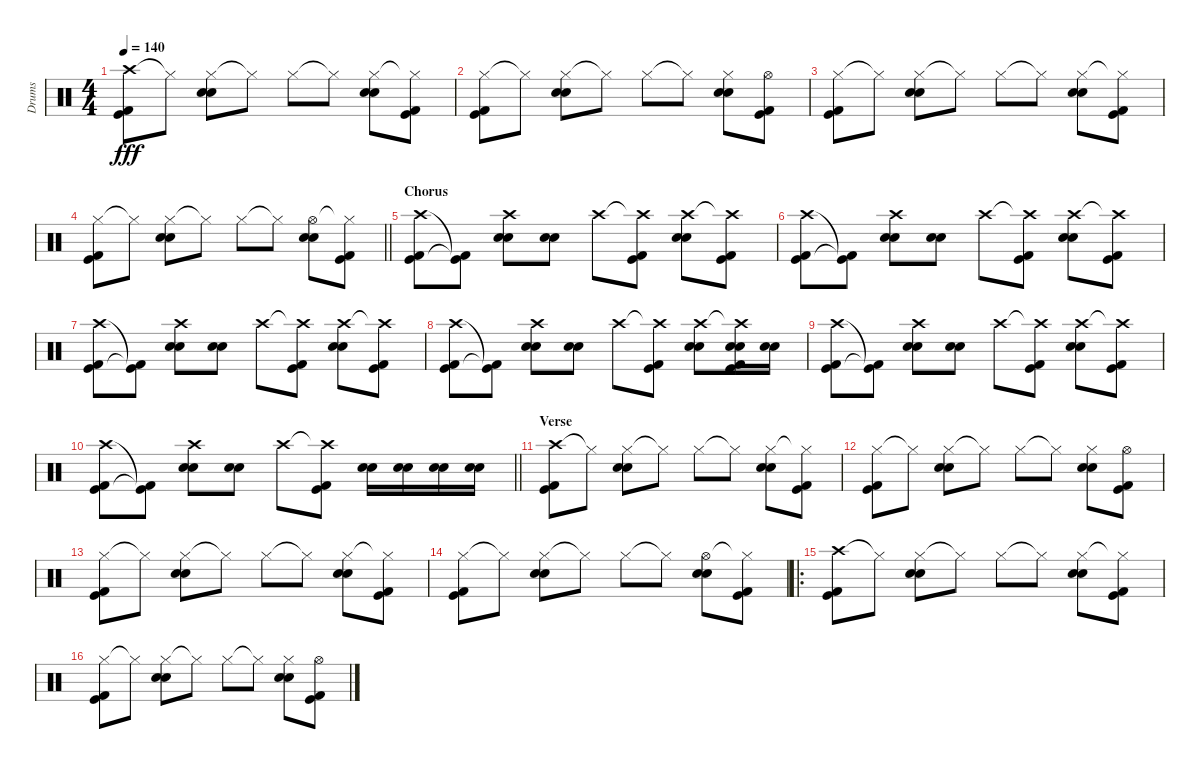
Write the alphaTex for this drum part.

\track ("Drums" "Drums") {instrument percussion}
\staff {score}
\articulation defaults
\ts (4 4)
\tempo 140
\clef neutral
\ks c
("Crash high (hit)" "Kick (hit)" "Kick (hit) 2").8{dy fff} "Hi-Hat (closed)"{t}.8 ("Hi-Hat (closed)" "Electric Snare (hit)" "Electric Snare (hit)").8 "Hi-Hat (closed)"{t}.8 "Hi-Hat (closed)".8 "Hi-Hat (closed)"{t}.8 ("Hi-Hat (closed)" "Electric Snare (hit)" "Electric Snare (hit)").8 ("Hi-Hat (closed)"{t} "Kick (hit)" "Kick (hit) 2").8 |
("Hi-Hat (closed)" "Kick (hit)" "Kick (hit) 2").8 "Hi-Hat (closed)"{t}.8 ("Hi-Hat (closed)" "Electric Snare (hit)" "Electric Snare (hit)").8 "Hi-Hat (closed)"{t}.8 "Hi-Hat (closed)".8 "Hi-Hat (closed)"{t}.8 ("Hi-Hat (closed)" "Electric Snare (hit)" "Electric Snare (hit)").8 ("Hi-Hat (open)" "Kick (hit)" "Kick (hit) 2").8 |
("Hi-Hat (closed)" "Kick (hit)" "Kick (hit) 2").8 "Hi-Hat (closed)"{t}.8 ("Hi-Hat (closed)" "Electric Snare (hit)" "Electric Snare (hit)").8 "Hi-Hat (closed)"{t}.8 "Hi-Hat (closed)".8 "Hi-Hat (closed)"{t}.8 ("Hi-Hat (closed)" "Electric Snare (hit)" "Electric Snare (hit)").8 ("Hi-Hat (closed)"{t} "Kick (hit)" "Kick (hit) 2").8 |
\barLineRight lightlight
("Hi-Hat (closed)" "Kick (hit)" "Kick (hit) 2").8 "Hi-Hat (closed)"{t}.8 ("Hi-Hat (closed)" "Electric Snare (hit)" "Electric Snare (hit)").8 "Hi-Hat (closed)"{t}.8 "Hi-Hat (closed)".8 "Hi-Hat (closed)"{t}.8 ("Hi-Hat (open)" "Electric Snare (hit)" "Electric Snare (hit)").8 ("Hi-Hat (closed)"{t} "Kick (hit)" "Kick (hit) 2").8 |
\section ("" "Chorus")
("Crash high (hit)" "Kick (hit)" "Kick (hit) 2").8 ("Kick (hit)"{t} "Kick (hit) 2"{t}).8 ("Crash high (hit)" "Electric Snare (hit)" "Electric Snare (hit)").8 ("Electric Snare (hit)" "Electric Snare (hit)").8 "Crash high (hit)".8 ("Crash high (hit)"{t} "Kick (hit)" "Kick (hit) 2").8 ("Crash high (hit)" "Electric Snare (hit)" "Electric Snare (hit)").8 ("Crash high (hit)"{t} "Kick (hit)" "Kick (hit) 2").8 |
("Crash high (hit)" "Kick (hit)" "Kick (hit) 2").8 ("Kick (hit)"{t} "Kick (hit) 2"{t}).8 ("Crash high (hit)" "Electric Snare (hit)" "Electric Snare (hit)").8 ("Electric Snare (hit)" "Electric Snare (hit)").8 "Crash high (hit)".8 ("Crash high (hit)"{t} "Kick (hit)" "Kick (hit) 2").8 ("Crash high (hit)" "Electric Snare (hit)" "Electric Snare (hit)").8 ("Crash high (hit)"{t} "Kick (hit)" "Kick (hit) 2").8 |
("Crash high (hit)" "Kick (hit)" "Kick (hit) 2").8 ("Kick (hit)"{t} "Kick (hit) 2"{t}).8 ("Crash high (hit)" "Electric Snare (hit)" "Electric Snare (hit)").8 ("Electric Snare (hit)" "Electric Snare (hit)").8 "Crash high (hit)".8 ("Crash high (hit)"{t} "Kick (hit)" "Kick (hit) 2").8 ("Crash high (hit)" "Electric Snare (hit)" "Electric Snare (hit)").8 ("Crash high (hit)"{t} "Kick (hit)" "Kick (hit) 2").8 |
("Crash high (hit)" "Kick (hit)" "Kick (hit) 2").8 ("Kick (hit)"{t} "Kick (hit) 2"{t}).8 ("Crash high (hit)" "Electric Snare (hit)" "Electric Snare (hit)").8 ("Electric Snare (hit)" "Electric Snare (hit)").8 "Crash high (hit)".8 ("Crash high (hit)"{t} "Kick (hit)" "Kick (hit) 2").8 ("Crash high (hit)" "Electric Snare (hit)" "Electric Snare (hit)").8 ("Crash high (hit)"{t} "Electric Snare (hit)" "Electric Snare (hit)" "Kick (hit)" "Kick (hit) 2").16 ("Electric Snare (hit)" "Electric Snare (hit)").16 |
("Crash high (hit)" "Kick (hit)" "Kick (hit) 2").8 ("Kick (hit)"{t} "Kick (hit) 2"{t}).8 ("Crash high (hit)" "Electric Snare (hit)" "Electric Snare (hit)").8 ("Electric Snare (hit)" "Electric Snare (hit)").8 "Crash high (hit)".8 ("Crash high (hit)"{t} "Kick (hit)" "Kick (hit) 2").8 ("Crash high (hit)" "Electric Snare (hit)" "Electric Snare (hit)").8 ("Crash high (hit)"{t} "Kick (hit)" "Kick (hit) 2").8 |
\barLineRight lightlight
("Crash high (hit)" "Kick (hit)" "Kick (hit) 2").8 ("Kick (hit)"{t} "Kick (hit) 2"{t}).8 ("Crash high (hit)" "Electric Snare (hit)" "Electric Snare (hit)").8 ("Electric Snare (hit)" "Electric Snare (hit)").8 "Crash high (hit)".8 ("Crash high (hit)"{t} "Kick (hit)" "Kick (hit) 2").8 ("Electric Snare (hit)" "Electric Snare (hit)").16 ("Electric Snare (hit)" "Electric Snare (hit)").16 ("Electric Snare (hit)" "Electric Snare (hit)").16 ("Electric Snare (hit)" "Electric Snare (hit)").16 |
\section ("" "Verse")
("Crash high (hit)" "Kick (hit)" "Kick (hit) 2").8 "Hi-Hat (closed)"{t}.8 ("Hi-Hat (closed)" "Electric Snare (hit)" "Electric Snare (hit)").8 "Hi-Hat (closed)"{t}.8 "Hi-Hat (closed)".8 "Hi-Hat (closed)"{t}.8 ("Hi-Hat (closed)" "Electric Snare (hit)" "Electric Snare (hit)").8 ("Hi-Hat (closed)"{t} "Kick (hit)" "Kick (hit) 2").8 |
("Hi-Hat (closed)" "Kick (hit)" "Kick (hit) 2").8 "Hi-Hat (closed)"{t}.8 ("Hi-Hat (closed)" "Electric Snare (hit)" "Electric Snare (hit)").8 "Hi-Hat (closed)"{t}.8 "Hi-Hat (closed)".8 "Hi-Hat (closed)"{t}.8 ("Hi-Hat (closed)" "Electric Snare (hit)" "Electric Snare (hit)").8 ("Hi-Hat (open)" "Kick (hit)" "Kick (hit) 2").8 |
("Hi-Hat (closed)" "Kick (hit)" "Kick (hit) 2").8 "Hi-Hat (closed)"{t}.8 ("Hi-Hat (closed)" "Electric Snare (hit)" "Electric Snare (hit)").8 "Hi-Hat (closed)"{t}.8 "Hi-Hat (closed)".8 "Hi-Hat (closed)"{t}.8 ("Hi-Hat (closed)" "Electric Snare (hit)" "Electric Snare (hit)").8 ("Hi-Hat (closed)"{t} "Kick (hit)" "Kick (hit) 2").8 |
("Hi-Hat (closed)" "Kick (hit)" "Kick (hit) 2").8 "Hi-Hat (closed)"{t}.8 ("Hi-Hat (closed)" "Electric Snare (hit)" "Electric Snare (hit)").8 "Hi-Hat (closed)"{t}.8 "Hi-Hat (closed)".8 "Hi-Hat (closed)"{t}.8 ("Hi-Hat (open)" "Electric Snare (hit)" "Electric Snare (hit)").8 ("Hi-Hat (closed)"{t} "Kick (hit)" "Kick (hit) 2").8 |
\ro
("Crash high (hit)" "Kick (hit)" "Kick (hit) 2").8 "Hi-Hat (closed)"{t}.8 ("Hi-Hat (closed)" "Electric Snare (hit)" "Electric Snare (hit)").8 "Hi-Hat (closed)"{t}.8 "Hi-Hat (closed)".8 "Hi-Hat (closed)"{t}.8 ("Hi-Hat (closed)" "Electric Snare (hit)" "Electric Snare (hit)").8 ("Hi-Hat (closed)"{t} "Kick (hit)" "Kick (hit) 2").8 |
("Hi-Hat (closed)" "Kick (hit)" "Kick (hit) 2").8 "Hi-Hat (closed)"{t}.8 ("Hi-Hat (closed)" "Electric Snare (hit)" "Electric Snare (hit)").8 "Hi-Hat (closed)"{t}.8 "Hi-Hat (closed)".8 "Hi-Hat (closed)"{t}.8 ("Hi-Hat (closed)" "Electric Snare (hit)" "Electric Snare (hit)").8 ("Hi-Hat (open)" "Kick (hit)" "Kick (hit) 2").8
